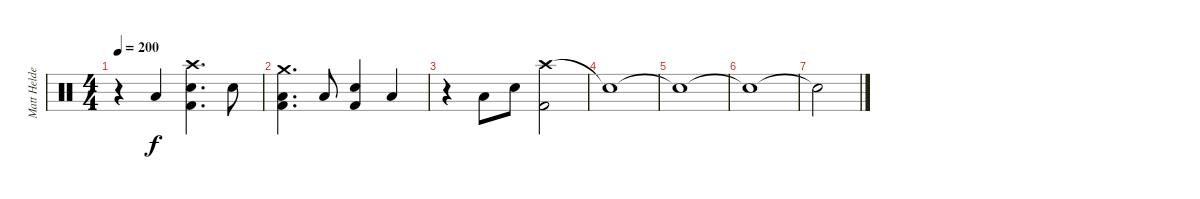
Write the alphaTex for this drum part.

\track ("Matt Helders (Drums/Percussion)" "Matt Helde") {instrument percussion}
\staff {score}
\articulation defaults
\ts (4 4)
\tempo 200
\clef neutral
\ks c
r.4{dy f} "Low Tom (hit)".4 ("Crash high (hit)" "Snare (hit) 2" "Kick (hit) 2").4{d} "Snare (hit) 2".8 |
("Crash medium (hit)" "Low Tom (hit)" "Kick (hit) 2").4{d} "Low Tom (hit)".8 ("Snare (hit) 2" "Kick (hit) 2").4 "Low Tom (hit)".4 |
r.4 "Low Tom (hit)".8 "Snare (hit) 2".8 ("Crash high (hit)" "Kick (hit) 2").2 |
"Snare (hit)"{t}.1 |
"Snare (hit)"{t}.1 |
"Snare (hit)"{t}.1 |
"Snare (hit)"{t}.2
